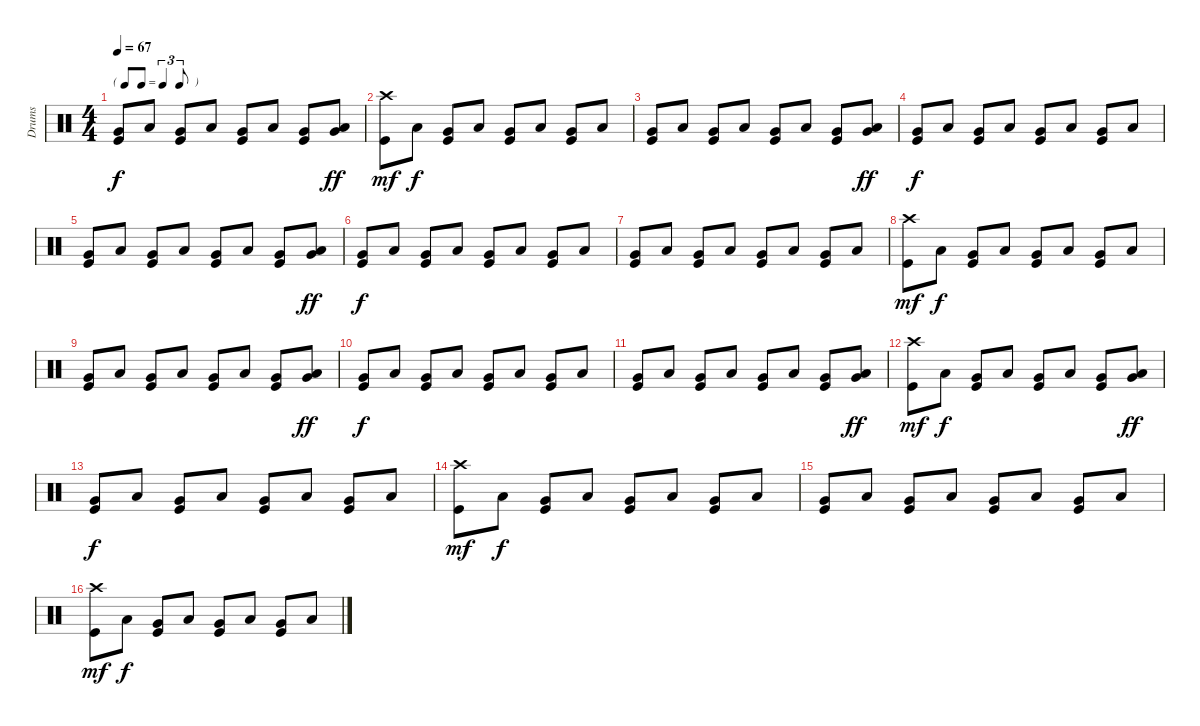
\track (" Drums " " Drums ") {instrument percussion}
\staff {score}
\articulation defaults
\ts (4 4)
\tf triplet8th
\tempo 67
\clef neutral
\ks c
("Very Low Tom (hit)" "Kick (hit)").8{dy f} "Low Floor Tom (hit)".8 ("Very Low Tom (hit)" "Kick (hit)").8 "Low Floor Tom (hit)".8 ("Very Low Tom (hit)" "Kick (hit)").8 "Low Floor Tom (hit)".8 ("Very Low Tom (hit)" "Kick (hit)").8 ("Low Floor Tom (hit)" "Very Low Tom (hit)").8{dy ff} |
("Crash high (hit)" "Kick (hit)").8{dy mf} "Low Floor Tom (hit)".8{dy f} ("Very Low Tom (hit)" "Kick (hit)").8 "Low Floor Tom (hit)".8 ("Very Low Tom (hit)" "Kick (hit)").8 "Low Floor Tom (hit)".8 ("Very Low Tom (hit)" "Kick (hit)").8 "Low Floor Tom (hit)".8 |
("Very Low Tom (hit)" "Kick (hit)").8 "Low Floor Tom (hit)".8 ("Very Low Tom (hit)" "Kick (hit)").8 "Low Floor Tom (hit)".8 ("Very Low Tom (hit)" "Kick (hit)").8 "Low Floor Tom (hit)".8 ("Very Low Tom (hit)" "Kick (hit)").8 ("Low Floor Tom (hit)" "Very Low Tom (hit)").8{dy ff} |
("Very Low Tom (hit)" "Kick (hit)").8{dy f} "Low Floor Tom (hit)".8 ("Very Low Tom (hit)" "Kick (hit)").8 "Low Floor Tom (hit)".8 ("Very Low Tom (hit)" "Kick (hit)").8 "Low Floor Tom (hit)".8 ("Very Low Tom (hit)" "Kick (hit)").8 "Low Floor Tom (hit)".8 |
("Very Low Tom (hit)" "Kick (hit)").8 "Low Floor Tom (hit)".8 ("Very Low Tom (hit)" "Kick (hit)").8 "Low Floor Tom (hit)".8 ("Very Low Tom (hit)" "Kick (hit)").8 "Low Floor Tom (hit)".8 ("Very Low Tom (hit)" "Kick (hit)").8 ("Low Floor Tom (hit)" "Very Low Tom (hit)").8{dy ff} |
("Very Low Tom (hit)" "Kick (hit)").8{dy f} "Low Floor Tom (hit)".8 ("Very Low Tom (hit)" "Kick (hit)").8 "Low Floor Tom (hit)".8 ("Very Low Tom (hit)" "Kick (hit)").8 "Low Floor Tom (hit)".8 ("Very Low Tom (hit)" "Kick (hit)").8 "Low Floor Tom (hit)".8 |
("Very Low Tom (hit)" "Kick (hit)").8 "Low Floor Tom (hit)".8 ("Very Low Tom (hit)" "Kick (hit)").8 "Low Floor Tom (hit)".8 ("Very Low Tom (hit)" "Kick (hit)").8 "Low Floor Tom (hit)".8 ("Very Low Tom (hit)" "Kick (hit)").8 "Low Floor Tom (hit)".8 |
("Crash high (hit)" "Kick (hit)").8{dy mf} "Low Floor Tom (hit)".8{dy f} ("Very Low Tom (hit)" "Kick (hit)").8 "Low Floor Tom (hit)".8 ("Very Low Tom (hit)" "Kick (hit)").8 "Low Floor Tom (hit)".8 ("Very Low Tom (hit)" "Kick (hit)").8 "Low Floor Tom (hit)".8 |
("Very Low Tom (hit)" "Kick (hit)").8 "Low Floor Tom (hit)".8 ("Very Low Tom (hit)" "Kick (hit)").8 "Low Floor Tom (hit)".8 ("Very Low Tom (hit)" "Kick (hit)").8 "Low Floor Tom (hit)".8 ("Very Low Tom (hit)" "Kick (hit)").8 ("Low Floor Tom (hit)" "Very Low Tom (hit)").8{dy ff} |
("Very Low Tom (hit)" "Kick (hit)").8{dy f} "Low Floor Tom (hit)".8 ("Very Low Tom (hit)" "Kick (hit)").8 "Low Floor Tom (hit)".8 ("Very Low Tom (hit)" "Kick (hit)").8 "Low Floor Tom (hit)".8 ("Very Low Tom (hit)" "Kick (hit)").8 "Low Floor Tom (hit)".8 |
("Very Low Tom (hit)" "Kick (hit)").8 "Low Floor Tom (hit)".8 ("Very Low Tom (hit)" "Kick (hit)").8 "Low Floor Tom (hit)".8 ("Very Low Tom (hit)" "Kick (hit)").8 "Low Floor Tom (hit)".8 ("Very Low Tom (hit)" "Kick (hit)").8 ("Low Floor Tom (hit)" "Very Low Tom (hit)").8{dy ff} |
("Crash high (hit)" "Kick (hit)").8{dy mf} "Low Floor Tom (hit)".8{dy f} ("Very Low Tom (hit)" "Kick (hit)").8 "Low Floor Tom (hit)".8 ("Very Low Tom (hit)" "Kick (hit)").8 "Low Floor Tom (hit)".8 ("Very Low Tom (hit)" "Kick (hit)").8 ("Low Floor Tom (hit)" "Very Low Tom (hit)").8{dy ff} |
("Very Low Tom (hit)" "Kick (hit)").8{dy f} "Low Floor Tom (hit)".8 ("Very Low Tom (hit)" "Kick (hit)").8 "Low Floor Tom (hit)".8 ("Very Low Tom (hit)" "Kick (hit)").8 "Low Floor Tom (hit)".8 ("Very Low Tom (hit)" "Kick (hit)").8 "Low Floor Tom (hit)".8 |
("Crash high (hit)" "Kick (hit)").8{dy mf} "Low Floor Tom (hit)".8{dy f} ("Very Low Tom (hit)" "Kick (hit)").8 "Low Floor Tom (hit)".8 ("Very Low Tom (hit)" "Kick (hit)").8 "Low Floor Tom (hit)".8 ("Very Low Tom (hit)" "Kick (hit)").8 "Low Floor Tom (hit)".8 |
("Very Low Tom (hit)" "Kick (hit)").8 "Low Floor Tom (hit)".8 ("Very Low Tom (hit)" "Kick (hit)").8 "Low Floor Tom (hit)".8 ("Very Low Tom (hit)" "Kick (hit)").8 "Low Floor Tom (hit)".8 ("Very Low Tom (hit)" "Kick (hit)").8 "Low Floor Tom (hit)".8 |
("Crash high (hit)" "Kick (hit)").8{dy mf} "Low Floor Tom (hit)".8{dy f} ("Very Low Tom (hit)" "Kick (hit)").8 "Low Floor Tom (hit)".8 ("Very Low Tom (hit)" "Kick (hit)").8 "Low Floor Tom (hit)".8 ("Very Low Tom (hit)" "Kick (hit)").8 "Low Floor Tom (hit)".8
